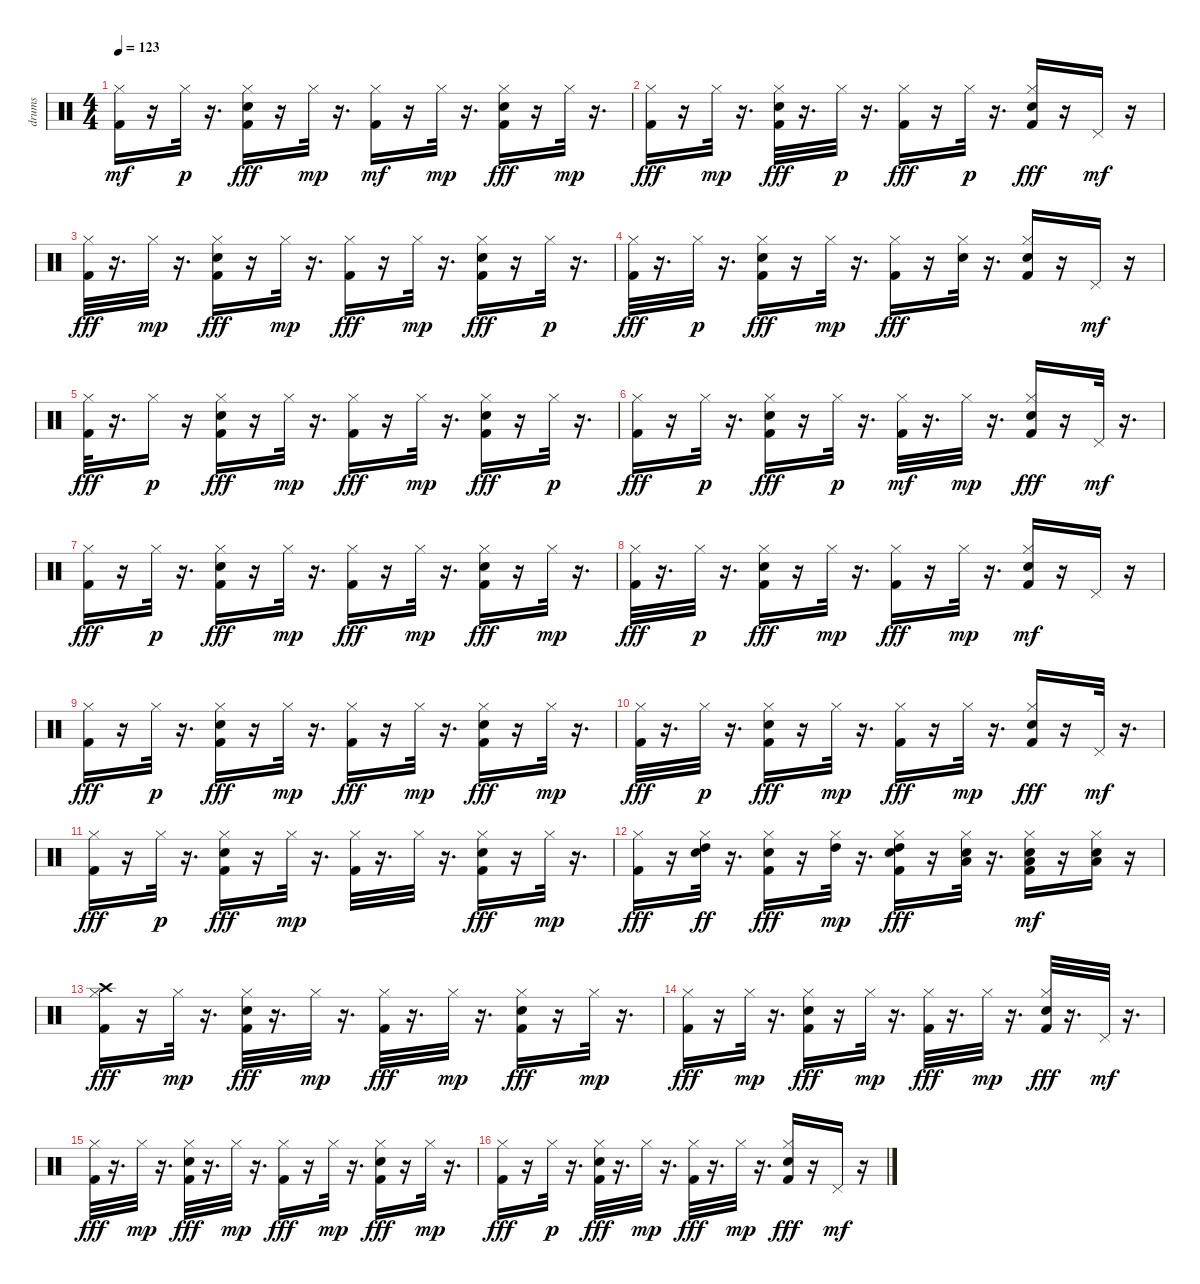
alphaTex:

\track ("drums   " "drums   ") {instrument percussion}
\staff {score}
\articulation defaults
\ts (4 4)
\tempo 123
\clef neutral
\ks c
("Kick (hit) 2" "Hi-Hat (closed)").16{dy mf} r.16 "Hi-Hat (closed)".32{dy p} r.16{d} ("Kick (hit) 2" "Hi-Hat (closed)" "Snare (hit) 2").16{dy fff} r.16 "Hi-Hat (closed)".32{dy mp} r.16{d} ("Kick (hit) 2" "Hi-Hat (closed)").16{dy mf} r.16 "Hi-Hat (closed)".32{dy mp} r.16{d} ("Kick (hit) 2" "Hi-Hat (closed)" "Snare (hit) 2").16{dy fff} r.16 "Hi-Hat (closed)".32{dy mp} r.16{d} |
("Hi-Hat (closed)" "Kick (hit) 2").16{dy fff} r.16 "Hi-Hat (closed)".32{dy mp} r.16{d} ("Snare (hit) 2" "Kick (hit) 2" "Hi-Hat (closed)").32{dy fff} r.16{d} "Hi-Hat (closed)".32{dy p} r.16{d} ("Hi-Hat (closed)" "Kick (hit) 2").16{dy fff} r.16 "Hi-Hat (closed)".32{dy p} r.16{d} ("Kick (hit) 2" "Hi-Hat (closed)" "Snare (hit) 2").16{dy fff} r.16 "Pedal Hi-Hat (hit)".16{dy mf} r.16 |
("Hi-Hat (closed)" "Kick (hit) 2").32{dy fff} r.16{d} "Hi-Hat (closed)".32{dy mp} r.16{d} ("Kick (hit) 2" "Hi-Hat (closed)" "Snare (hit) 2").16{dy fff} r.16 "Hi-Hat (closed)".32{dy mp} r.16{d} ("Hi-Hat (closed)" "Kick (hit) 2").16{dy fff} r.16 "Hi-Hat (closed)".32{dy mp} r.16{d} ("Kick (hit) 2" "Hi-Hat (closed)" "Snare (hit) 2").16{dy fff} r.16 "Hi-Hat (closed)".32{dy p} r.16{d} |
("Hi-Hat (closed)" "Kick (hit) 2").32{dy fff} r.16{d} "Hi-Hat (closed)".32{dy p} r.16{d} ("Kick (hit) 2" "Hi-Hat (closed)" "Snare (hit) 2").16{dy fff} r.16 "Hi-Hat (closed)".32{dy mp} r.16{d} ("Hi-Hat (closed)" "Kick (hit) 2").16{dy fff} r.16 ("Hi-Hat (closed)" "Snare (hit) 2").32 r.16{d} ("Snare (hit) 2" "Kick (hit) 2" "Hi-Hat (closed)").16 r.16 "Pedal Hi-Hat (hit)".16{dy mf} r.16 |
("Hi-Hat (closed)" "Kick (hit) 2").32{dy fff} r.16{d} "Hi-Hat (closed)".16{dy p} r.16 ("Hi-Hat (closed)" "Kick (hit) 2" "Snare (hit) 2").16{dy fff} r.16 "Hi-Hat (closed)".32{dy mp} r.16{d} ("Hi-Hat (closed)" "Kick (hit) 2").16{dy fff} r.16 "Hi-Hat (closed)".32{dy mp} r.16{d} ("Kick (hit) 2" "Hi-Hat (closed)" "Snare (hit) 2").16{dy fff} r.16 "Hi-Hat (closed)".32{dy p} r.16{d} |
("Hi-Hat (closed)" "Kick (hit) 2").16{dy fff} r.16 "Hi-Hat (closed)".32{dy p} r.16{d} ("Kick (hit) 2" "Hi-Hat (closed)" "Snare (hit) 2").16{dy fff} r.16 "Hi-Hat (closed)".32{dy p} r.16{d} ("Kick (hit) 2" "Hi-Hat (closed)").32{dy mf} r.16{d} "Hi-Hat (closed)".32{dy mp} r.16{d} ("Kick (hit) 2" "Hi-Hat (closed)" "Snare (hit) 2").16{dy fff} r.16 "Pedal Hi-Hat (hit)".32{dy mf} r.16{d} |
("Hi-Hat (closed)" "Kick (hit) 2").16{dy fff} r.16 "Hi-Hat (closed)".32{dy p} r.16{d} ("Kick (hit) 2" "Hi-Hat (closed)" "Snare (hit) 2").16{dy fff} r.16 "Hi-Hat (closed)".32{dy mp} r.16{d} ("Hi-Hat (closed)" "Kick (hit) 2").16{dy fff} r.16 "Hi-Hat (closed)".32{dy mp} r.16{d} ("Kick (hit) 2" "Hi-Hat (closed)" "Snare (hit) 2").16{dy fff} r.16 "Hi-Hat (closed)".32{dy mp} r.16{d} |
("Hi-Hat (closed)" "Kick (hit) 2").32{dy fff} r.16{d} "Hi-Hat (closed)".32{dy p} r.16{d} ("Hi-Hat (closed)" "Kick (hit) 2" "Snare (hit) 2").16{dy fff} r.16 "Hi-Hat (closed)".32{dy mp} r.16{d} ("Hi-Hat (closed)" "Kick (hit) 2").16{dy fff} r.16 "Hi-Hat (closed)".32{dy mp} r.16{d} ("Kick (hit) 2" "Snare (hit) 2" "Hi-Hat (closed)").16{dy mf} r.16 "Pedal Hi-Hat (hit)".16 r.16 |
("Hi-Hat (closed)" "Kick (hit) 2").16{dy fff} r.16 "Hi-Hat (closed)".32{dy p} r.16{d} ("Hi-Hat (closed)" "Snare (hit) 2" "Kick (hit) 2").16{dy fff} r.16 "Hi-Hat (closed)".32{dy mp} r.16{d} ("Hi-Hat (closed)" "Kick (hit) 2").16{dy fff} r.16 "Hi-Hat (closed)".32{dy mp} r.16{d} ("Snare (hit) 2" "Kick (hit) 2" "Hi-Hat (closed)").16{dy fff} r.16 "Hi-Hat (closed)".32{dy mp} r.16{d} |
("Kick (hit) 2" "Hi-Hat (closed)").32{dy fff} r.16{d} "Hi-Hat (closed)".32{dy p} r.16{d} ("Snare (hit) 2" "Hi-Hat (closed)" "Kick (hit) 2").16{dy fff} r.16 "Hi-Hat (closed)".32{dy mp} r.16{d} ("Hi-Hat (closed)" "Kick (hit) 2").16{dy fff} r.16 "Hi-Hat (closed)".32{dy mp} r.16{d} ("Kick (hit) 2" "Hi-Hat (closed)" "Snare (hit) 2").16{dy fff} r.16 "Pedal Hi-Hat (hit)".32{dy mf} r.16{d} |
("Hi-Hat (closed)" "Kick (hit) 2").16{dy fff} r.16 "Hi-Hat (closed)".32{dy p} r.16{d} ("Hi-Hat (closed)" "Kick (hit) 2" "Snare (hit) 2").16{dy fff} r.16 "Hi-Hat (closed)".32{dy mp} r.16{d} ("Kick (hit) 2" "Hi-Hat (closed)").32 r.16{d} "Hi-Hat (closed)".32 r.16{d} ("Hi-Hat (closed)" "Kick (hit) 2" "Snare (hit) 2").16{dy fff} r.16 "Hi-Hat (closed)".32{dy mp} r.16{d} |
("Hi-Hat (closed)" "Kick (hit) 2").16{dy fff} r.16 ("Hi-Hat (closed)" "Snare (hit) 2" "High Tom (hit)").32{dy ff} r.16{d} ("Kick (hit) 2" "Hi-Hat (closed)" "Snare (hit) 2").16{dy fff} r.16 ("Hi-Hat (closed)" "High Tom (hit)").32{dy mp} r.16{d} ("Kick (hit) 2" "Hi-Hat (closed)" "Snare (hit) 2" "High Tom (hit)").16{dy fff} r.16 ("Hi-Hat (closed)" "Snare (hit) 2" "Low Tom (hit)").32 r.16{d} ("Kick (hit) 2" "Hi-Hat (closed)" "Snare (hit) 2" "Low Floor Tom (hit)").16{dy mf} r.16 ("Hi-Hat (closed)" "Snare (hit) 2" "Low Floor Tom (hit)").16 r.16 |
("Hi-Hat (closed)" "Kick (hit) 2" "Crash high (hit)").16{dy fff} r.16 "Hi-Hat (closed)".32{dy mp} r.16{d} ("Kick (hit) 2" "Hi-Hat (closed)" "Snare (hit) 2").32{dy fff} r.16{d} "Hi-Hat (closed)".32{dy mp} r.16{d} ("Hi-Hat (closed)" "Kick (hit) 2").32{dy fff} r.16{d} "Hi-Hat (closed)".32{dy mp} r.16{d} ("Kick (hit) 2" "Hi-Hat (closed)" "Snare (hit) 2").16{dy fff} r.16 "Hi-Hat (closed)".32{dy mp} r.16{d} |
("Kick (hit) 2" "Hi-Hat (closed)").16{dy fff} r.16 "Hi-Hat (closed)".32{dy mp} r.16{d} ("Kick (hit) 2" "Hi-Hat (closed)" "Snare (hit) 2").16{dy fff} r.16 "Hi-Hat (closed)".32{dy mp} r.16{d} ("Hi-Hat (closed)" "Kick (hit) 2").32{dy fff} r.16{d} "Hi-Hat (closed)".32{dy mp} r.16{d} ("Hi-Hat (closed)" "Kick (hit) 2" "Snare (hit) 2").32{dy fff} r.16{d} "Pedal Hi-Hat (hit)".32{dy mf} r.16{d} |
("Hi-Hat (closed)" "Kick (hit) 2").32{dy fff} r.16{d} "Hi-Hat (closed)".32{dy mp} r.16{d} ("Hi-Hat (closed)" "Kick (hit) 2" "Snare (hit) 2").32{dy fff} r.16{d} "Hi-Hat (closed)".32{dy mp} r.16{d} ("Hi-Hat (closed)" "Kick (hit) 2").16{dy fff} r.16 "Hi-Hat (closed)".32{dy mp} r.16{d} ("Kick (hit) 2" "Hi-Hat (closed)" "Snare (hit) 2").16{dy fff} r.16 "Hi-Hat (closed)".32{dy mp} r.16{d} |
("Hi-Hat (closed)" "Kick (hit) 2").16{dy fff} r.16 "Hi-Hat (closed)".32{dy p} r.16{d} ("Hi-Hat (closed)" "Snare (hit) 2" "Kick (hit) 2").32{dy fff} r.16{d} "Hi-Hat (closed)".32{dy mp} r.16{d} ("Hi-Hat (closed)" "Kick (hit) 2").32{dy fff} r.16{d} "Hi-Hat (closed)".32{dy mp} r.16{d} ("Kick (hit) 2" "Hi-Hat (closed)" "Snare (hit) 2").16{dy fff} r.16 "Pedal Hi-Hat (hit)".16{dy mf} r.16
